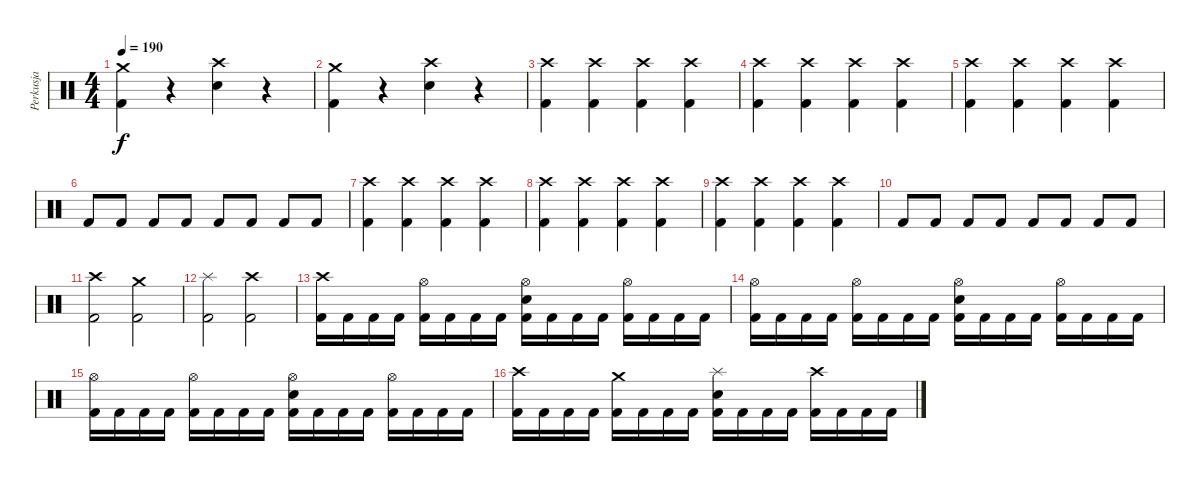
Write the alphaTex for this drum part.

\track ("Perkusja" "Perkusja") {instrument percussion}
\staff {score}
\articulation defaults
\ts (4 4)
\tempo 190
\clef neutral
\ks c
("Crash medium (hit)" "Kick (hit) 2").4{dy f} r.4 ("Crash high (hit)" "Electric Snare (hit)").4 r.4 |
("Crash medium (hit)" "Kick (hit) 2").4 r.4 ("Crash high (hit)" "Electric Snare (hit)").4 r.4 |
("Crash high (hit)" "Kick (hit) 2").4 ("Crash high (hit)" "Kick (hit) 2").4 ("Crash high (hit)" "Kick (hit) 2").4 ("Crash high (hit)" "Kick (hit) 2").4 |
("Crash high (hit)" "Kick (hit) 2").4 ("Crash high (hit)" "Kick (hit) 2").4 ("Crash high (hit)" "Kick (hit) 2").4 ("Crash high (hit)" "Kick (hit) 2").4 |
("Crash high (hit)" "Kick (hit) 2").4 ("Crash high (hit)" "Kick (hit) 2").4 ("Crash high (hit)" "Kick (hit) 2").4 ("Crash high (hit)" "Kick (hit) 2").4 |
"Kick (hit) 2".8 "Kick (hit) 2".8 "Kick (hit) 2".8 "Kick (hit) 2".8 "Kick (hit) 2".8 "Kick (hit) 2".8 "Kick (hit) 2".8 "Kick (hit) 2".8 |
("Crash high (hit)" "Kick (hit) 2").4 ("Crash high (hit)" "Kick (hit) 2").4 ("Crash high (hit)" "Kick (hit) 2").4 ("Crash high (hit)" "Kick (hit) 2").4 |
("Crash high (hit)" "Kick (hit) 2").4 ("Crash high (hit)" "Kick (hit) 2").4 ("Crash high (hit)" "Kick (hit) 2").4 ("Crash high (hit)" "Kick (hit) 2").4 |
("Crash high (hit)" "Kick (hit) 2").4 ("Crash high (hit)" "Kick (hit) 2").4 ("Crash high (hit)" "Kick (hit) 2").4 ("Crash high (hit)" "Kick (hit) 2").4 |
"Kick (hit) 2".8 "Kick (hit) 2".8 "Kick (hit) 2".8 "Kick (hit) 2".8 "Kick (hit) 2".8 "Kick (hit) 2".8 "Kick (hit) 2".8 "Kick (hit) 2".8 |
("Crash high (hit)" "Kick (hit) 2").2 ("Crash medium (hit)" "Kick (hit) 2").2 |
("Splash (hit)" "Kick (hit) 2").2 ("Crash high (hit)" "Kick (hit) 2").2 |
("Crash high (hit)" "Kick (hit) 2").16 "Kick (hit) 2".16 "Kick (hit) 2".16 "Kick (hit) 2".16 ("Hi-Hat (open)" "Kick (hit) 2").16 "Kick (hit) 2".16 "Kick (hit) 2".16 "Kick (hit) 2".16 ("Hi-Hat (open)" "Electric Snare (hit)" "Kick (hit) 2").16 "Kick (hit) 2".16 "Kick (hit) 2".16 "Kick (hit) 2".16 ("Hi-Hat (open)" "Kick (hit) 2").16 "Kick (hit) 2".16 "Kick (hit) 2".16 "Kick (hit) 2".16 |
("Hi-Hat (open)" "Kick (hit) 2").16 "Kick (hit) 2".16 "Kick (hit) 2".16 "Kick (hit) 2".16 ("Hi-Hat (open)" "Kick (hit) 2").16 "Kick (hit) 2".16 "Kick (hit) 2".16 "Kick (hit) 2".16 ("Hi-Hat (open)" "Electric Snare (hit)" "Kick (hit) 2").16 "Kick (hit) 2".16 "Kick (hit) 2".16 "Kick (hit) 2".16 ("Hi-Hat (open)" "Kick (hit) 2").16 "Kick (hit) 2".16 "Kick (hit) 2".16 "Kick (hit) 2".16 |
("Hi-Hat (open)" "Kick (hit) 2").16 "Kick (hit) 2".16 "Kick (hit) 2".16 "Kick (hit) 2".16 ("Hi-Hat (open)" "Kick (hit) 2").16 "Kick (hit) 2".16 "Kick (hit) 2".16 "Kick (hit) 2".16 ("Hi-Hat (open)" "Electric Snare (hit)" "Kick (hit) 2").16 "Kick (hit) 2".16 "Kick (hit) 2".16 "Kick (hit) 2".16 ("Hi-Hat (open)" "Kick (hit) 2").16 "Kick (hit) 2".16 "Kick (hit) 2".16 "Kick (hit) 2".16 |
("Crash high (hit)" "Kick (hit) 2").16 "Kick (hit) 2".16 "Kick (hit) 2".16 "Kick (hit) 2".16 ("Crash medium (hit)" "Kick (hit) 2").16 "Kick (hit) 2".16 "Kick (hit) 2".16 "Kick (hit) 2".16 ("Splash (hit)" "Electric Snare (hit)" "Kick (hit) 2").16 "Kick (hit) 2".16 "Kick (hit) 2".16 "Kick (hit) 2".16 ("Crash high (hit)" "Kick (hit) 2").16 "Kick (hit) 2".16 "Kick (hit) 2".16 "Kick (hit) 2".16
